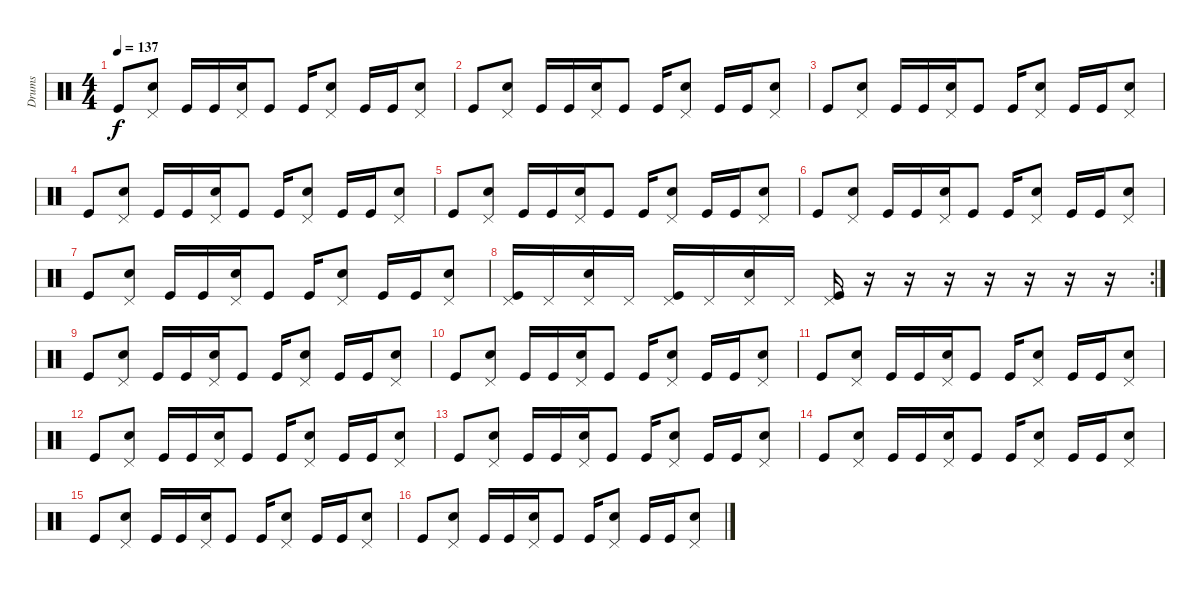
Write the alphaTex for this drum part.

\track ("Drums" "Drums") {instrument percussion}
\staff {score}
\articulation defaults
\ts (4 4)
\tempo 137
\clef neutral
\ks c "Kick (hit)".8{dy f}
("Electric Snare (hit)" "Pedal Hi-Hat (hit)").8 "Kick (hit)".16 "Kick (hit)".16 ("Electric Snare (hit)" "Pedal Hi-Hat (hit)").16 "Kick (hit)".8 "Kick (hit)".16 ("Electric Snare (hit)" "Pedal Hi-Hat (hit)").8 "Kick (hit)".16 "Kick (hit)".16 ("Electric Snare (hit)" "Pedal Hi-Hat (hit)").8 |
"Kick (hit)".8 ("Electric Snare (hit)" "Pedal Hi-Hat (hit)").8 "Kick (hit)".16 "Kick (hit)".16 ("Electric Snare (hit)" "Pedal Hi-Hat (hit)").16 "Kick (hit)".8 "Kick (hit)".16 ("Electric Snare (hit)" "Pedal Hi-Hat (hit)").8 "Kick (hit)".16 "Kick (hit)".16 ("Electric Snare (hit)" "Pedal Hi-Hat (hit)").8 |
"Kick (hit)".8 ("Electric Snare (hit)" "Pedal Hi-Hat (hit)").8 "Kick (hit)".16 "Kick (hit)".16 ("Electric Snare (hit)" "Pedal Hi-Hat (hit)").16 "Kick (hit)".8 "Kick (hit)".16 ("Electric Snare (hit)" "Pedal Hi-Hat (hit)").8 "Kick (hit)".16 "Kick (hit)".16 ("Electric Snare (hit)" "Pedal Hi-Hat (hit)").8 |
"Kick (hit)".8 ("Electric Snare (hit)" "Pedal Hi-Hat (hit)").8 "Kick (hit)".16 "Kick (hit)".16 ("Electric Snare (hit)" "Pedal Hi-Hat (hit)").16 "Kick (hit)".8 "Kick (hit)".16 ("Electric Snare (hit)" "Pedal Hi-Hat (hit)").8 "Kick (hit)".16 "Kick (hit)".16 ("Electric Snare (hit)" "Pedal Hi-Hat (hit)").8 |
"Kick (hit)".8 ("Electric Snare (hit)" "Pedal Hi-Hat (hit)").8 "Kick (hit)".16 "Kick (hit)".16 ("Electric Snare (hit)" "Pedal Hi-Hat (hit)").16 "Kick (hit)".8 "Kick (hit)".16 ("Electric Snare (hit)" "Pedal Hi-Hat (hit)").8 "Kick (hit)".16 "Kick (hit)".16 ("Electric Snare (hit)" "Pedal Hi-Hat (hit)").8 |
"Kick (hit)".8 ("Electric Snare (hit)" "Pedal Hi-Hat (hit)").8 "Kick (hit)".16 "Kick (hit)".16 ("Electric Snare (hit)" "Pedal Hi-Hat (hit)").16 "Kick (hit)".8 "Kick (hit)".16 ("Electric Snare (hit)" "Pedal Hi-Hat (hit)").8 "Kick (hit)".16 "Kick (hit)".16 ("Electric Snare (hit)" "Pedal Hi-Hat (hit)").8 |
"Kick (hit)".8 ("Electric Snare (hit)" "Pedal Hi-Hat (hit)").8 "Kick (hit)".16 "Kick (hit)".16 ("Electric Snare (hit)" "Pedal Hi-Hat (hit)").16 "Kick (hit)".8 "Kick (hit)".16 ("Electric Snare (hit)" "Pedal Hi-Hat (hit)").8 "Kick (hit)".16 "Kick (hit)".16 ("Electric Snare (hit)" "Pedal Hi-Hat (hit)").8 |
\rc 2
("Kick (hit)" "Pedal Hi-Hat (hit)").16 "Pedal Hi-Hat (hit)".16 ("Electric Snare (hit)" "Pedal Hi-Hat (hit)").16 "Pedal Hi-Hat (hit)".16 ("Kick (hit)" "Pedal Hi-Hat (hit)").16 "Pedal Hi-Hat (hit)".16 ("Electric Snare (hit)" "Pedal Hi-Hat (hit)").16 "Pedal Hi-Hat (hit)".16 ("Kick (hit)" "Pedal Hi-Hat (hit)").16 r.16 r.16 r.16 r.16 r.16 r.16 r.16 |
"Kick (hit)".8 ("Electric Snare (hit)" "Pedal Hi-Hat (hit)").8 "Kick (hit)".16 "Kick (hit)".16 ("Electric Snare (hit)" "Pedal Hi-Hat (hit)").16 "Kick (hit)".8 "Kick (hit)".16 ("Electric Snare (hit)" "Pedal Hi-Hat (hit)").8 "Kick (hit)".16 "Kick (hit)".16 ("Electric Snare (hit)" "Pedal Hi-Hat (hit)").8 |
"Kick (hit)".8 ("Electric Snare (hit)" "Pedal Hi-Hat (hit)").8 "Kick (hit)".16 "Kick (hit)".16 ("Electric Snare (hit)" "Pedal Hi-Hat (hit)").16 "Kick (hit)".8 "Kick (hit)".16 ("Electric Snare (hit)" "Pedal Hi-Hat (hit)").8 "Kick (hit)".16 "Kick (hit)".16 ("Electric Snare (hit)" "Pedal Hi-Hat (hit)").8 |
"Kick (hit)".8 ("Electric Snare (hit)" "Pedal Hi-Hat (hit)").8 "Kick (hit)".16 "Kick (hit)".16 ("Electric Snare (hit)" "Pedal Hi-Hat (hit)").16 "Kick (hit)".8 "Kick (hit)".16 ("Electric Snare (hit)" "Pedal Hi-Hat (hit)").8 "Kick (hit)".16 "Kick (hit)".16 ("Electric Snare (hit)" "Pedal Hi-Hat (hit)").8 |
"Kick (hit)".8 ("Electric Snare (hit)" "Pedal Hi-Hat (hit)").8 "Kick (hit)".16 "Kick (hit)".16 ("Electric Snare (hit)" "Pedal Hi-Hat (hit)").16 "Kick (hit)".8 "Kick (hit)".16 ("Electric Snare (hit)" "Pedal Hi-Hat (hit)").8 "Kick (hit)".16 "Kick (hit)".16 ("Electric Snare (hit)" "Pedal Hi-Hat (hit)").8 |
"Kick (hit)".8 ("Electric Snare (hit)" "Pedal Hi-Hat (hit)").8 "Kick (hit)".16 "Kick (hit)".16 ("Electric Snare (hit)" "Pedal Hi-Hat (hit)").16 "Kick (hit)".8 "Kick (hit)".16 ("Electric Snare (hit)" "Pedal Hi-Hat (hit)").8 "Kick (hit)".16 "Kick (hit)".16 ("Electric Snare (hit)" "Pedal Hi-Hat (hit)").8 |
"Kick (hit)".8 ("Electric Snare (hit)" "Pedal Hi-Hat (hit)").8 "Kick (hit)".16 "Kick (hit)".16 ("Electric Snare (hit)" "Pedal Hi-Hat (hit)").16 "Kick (hit)".8 "Kick (hit)".16 ("Electric Snare (hit)" "Pedal Hi-Hat (hit)").8 "Kick (hit)".16 "Kick (hit)".16 ("Electric Snare (hit)" "Pedal Hi-Hat (hit)").8 |
"Kick (hit)".8 ("Electric Snare (hit)" "Pedal Hi-Hat (hit)").8 "Kick (hit)".16 "Kick (hit)".16 ("Electric Snare (hit)" "Pedal Hi-Hat (hit)").16 "Kick (hit)".8 "Kick (hit)".16 ("Electric Snare (hit)" "Pedal Hi-Hat (hit)").8 "Kick (hit)".16 "Kick (hit)".16 ("Electric Snare (hit)" "Pedal Hi-Hat (hit)").8 |
"Kick (hit)".8 ("Electric Snare (hit)" "Pedal Hi-Hat (hit)").8 "Kick (hit)".16 "Kick (hit)".16 ("Electric Snare (hit)" "Pedal Hi-Hat (hit)").16 "Kick (hit)".8 "Kick (hit)".16 ("Electric Snare (hit)" "Pedal Hi-Hat (hit)").8 "Kick (hit)".16 "Kick (hit)".16 ("Electric Snare (hit)" "Pedal Hi-Hat (hit)").8
